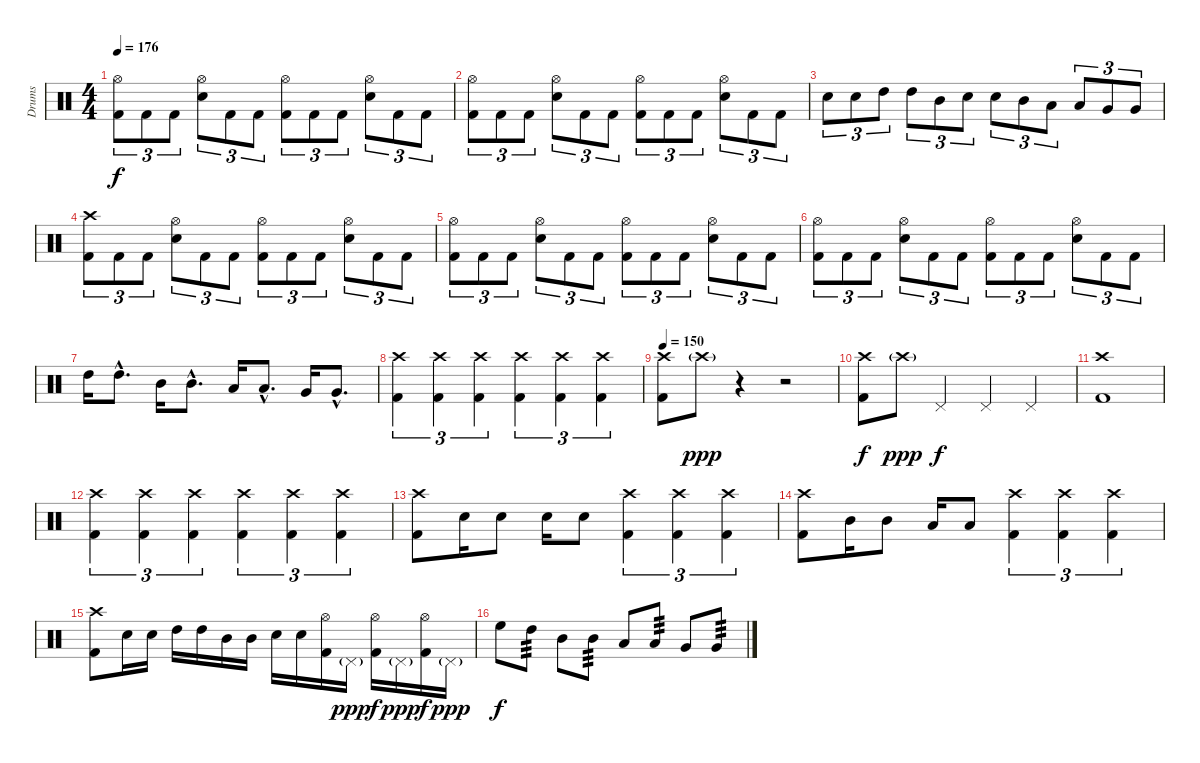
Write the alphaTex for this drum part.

\track ("Drums" "Drums") {instrument percussion}
\staff {score}
\articulation defaults
\ts (4 4)
\tempo 176
\clef neutral
\ks c
("Hi-Hat (open)" "Kick (hit) 2").8{tu (3 2) dy f} "Kick (hit) 2".8{tu (3 2)} "Kick (hit) 2".8{tu (3 2)} ("Hi-Hat (open)" "Electric Snare (hit)").8{tu (3 2)} "Kick (hit) 2".8{tu (3 2)} "Kick (hit) 2".8{tu (3 2)} ("Hi-Hat (open)" "Kick (hit) 2").8{tu (3 2)} "Kick (hit) 2".8{tu (3 2)} "Kick (hit) 2".8{tu (3 2)} ("Hi-Hat (open)" "Electric Snare (hit)").8{tu (3 2)} "Kick (hit) 2".8{tu (3 2)} "Kick (hit) 2".8{tu (3 2)} |
("Hi-Hat (open)" "Kick (hit) 2").8{tu (3 2)} "Kick (hit) 2".8{tu (3 2)} "Kick (hit) 2".8{tu (3 2)} ("Hi-Hat (open)" "Electric Snare (hit)").8{tu (3 2)} "Kick (hit) 2".8{tu (3 2)} "Kick (hit) 2".8{tu (3 2)} ("Hi-Hat (open)" "Kick (hit) 2").8{tu (3 2)} "Kick (hit) 2".8{tu (3 2)} "Kick (hit) 2".8{tu (3 2)} ("Hi-Hat (open)" "Electric Snare (hit)").8{tu (3 2)} "Kick (hit) 2".8{tu (3 2)} "Kick (hit) 2".8{tu (3 2)} |
"Electric Snare (hit)".8{tu (3 2)} "Electric Snare (hit)".8{tu (3 2)} "High Tom (hit)".8{tu (3 2)} "High Tom (hit)".8{tu (3 2)} "Mid Tom (hit)".8{tu (3 2)} "Electric Snare (hit)".8{tu (3 2)} "Electric Snare (hit)".8{tu (3 2)} "Mid Tom (hit)".8{tu (3 2)} "Low Tom (hit)".8{tu (3 2)} "Low Tom (hit)".8{tu (3 2)} "Very Low Tom (hit)".8{tu (3 2)} "Very Low Tom (hit)".8{tu (3 2)} |
("Crash high (hit)" "Kick (hit) 2").8{tu (3 2)} "Kick (hit) 2".8{tu (3 2)} "Kick (hit) 2".8{tu (3 2)} ("Hi-Hat (open)" "Electric Snare (hit)").8{tu (3 2)} "Kick (hit) 2".8{tu (3 2)} "Kick (hit) 2".8{tu (3 2)} ("Hi-Hat (open)" "Kick (hit) 2").8{tu (3 2)} "Kick (hit) 2".8{tu (3 2)} "Kick (hit) 2".8{tu (3 2)} ("Hi-Hat (open)" "Electric Snare (hit)").8{tu (3 2)} "Kick (hit) 2".8{tu (3 2)} "Kick (hit) 2".8{tu (3 2)} |
("Hi-Hat (open)" "Kick (hit) 2").8{tu (3 2)} "Kick (hit) 2".8{tu (3 2)} "Kick (hit) 2".8{tu (3 2)} ("Hi-Hat (open)" "Electric Snare (hit)").8{tu (3 2)} "Kick (hit) 2".8{tu (3 2)} "Kick (hit) 2".8{tu (3 2)} ("Hi-Hat (open)" "Kick (hit) 2").8{tu (3 2)} "Kick (hit) 2".8{tu (3 2)} "Kick (hit) 2".8{tu (3 2)} ("Hi-Hat (open)" "Electric Snare (hit)").8{tu (3 2)} "Kick (hit) 2".8{tu (3 2)} "Kick (hit) 2".8{tu (3 2)} |
("Hi-Hat (open)" "Kick (hit) 2").8{tu (3 2)} "Kick (hit) 2".8{tu (3 2)} "Kick (hit) 2".8{tu (3 2)} ("Hi-Hat (open)" "Electric Snare (hit)").8{tu (3 2)} "Kick (hit) 2".8{tu (3 2)} "Kick (hit) 2".8{tu (3 2)} ("Hi-Hat (open)" "Kick (hit) 2").8{tu (3 2)} "Kick (hit) 2".8{tu (3 2)} "Kick (hit) 2".8{tu (3 2)} ("Hi-Hat (open)" "Electric Snare (hit)").8{tu (3 2)} "Kick (hit) 2".8{tu (3 2)} "Kick (hit) 2".8{tu (3 2)} |
"High Tom (hit)".16 "High Tom (hit)"{hac}.8{d} "Mid Tom (hit)".16 "Mid Tom (hit)"{hac}.8{d} "Low Tom (hit)".16 "Low Tom (hit)"{hac}.8{d} "Very Low Tom (hit)".16 "Very Low Tom (hit)"{hac}.8{d} |
("Crash high (hit)" "Kick (hit) 2").4{tu (3 2)} ("Crash high (hit)" "Kick (hit) 2").4{tu (3 2)} ("Crash high (hit)" "Kick (hit) 2").4{tu (3 2)} ("Crash high (hit)" "Kick (hit) 2").4{tu (3 2)} ("Crash high (hit)" "Kick (hit) 2").4{tu (3 2)} ("Crash high (hit)" "Kick (hit) 2").4{tu (3 2)} |
\tempo 150
("Crash high (hit)" "Kick (hit) 2").8 "Crash high (hit)"{g}.8{dy ppp} r.4 r.2 |
("Crash high (hit)" "Kick (hit) 2").8{dy f} "Crash high (hit)"{g}.8{dy ppp} "Pedal Hi-Hat (hit)".4{dy f} "Pedal Hi-Hat (hit)".4 "Pedal Hi-Hat (hit)".4 |
("Crash high (hit)" "Kick (hit) 2").1 |
("Crash high (hit)" "Kick (hit) 2").4{tu (3 2)} ("Crash high (hit)" "Kick (hit) 2").4{tu (3 2)} ("Crash high (hit)" "Kick (hit) 2").4{tu (3 2)} ("Crash high (hit)" "Kick (hit) 2").4{tu (3 2)} ("Crash high (hit)" "Kick (hit) 2").4{tu (3 2)} ("Crash high (hit)" "Kick (hit) 2").4{tu (3 2)} |
("Crash high (hit)" "Kick (hit) 2").8 "Electric Snare (hit)".16 "Electric Snare (hit)".8 "Electric Snare (hit)".16 "Electric Snare (hit)".8 ("Crash high (hit)" "Kick (hit) 2").4{tu (3 2)} ("Crash high (hit)" "Kick (hit) 2").4{tu (3 2)} ("Crash high (hit)" "Kick (hit) 2").4{tu (3 2)} |
("Crash high (hit)" "Kick (hit) 2").8 "Mid Tom (hit)".16 "Mid Tom (hit)".8 "Low Tom (hit)".16 "Low Tom (hit)".8 ("Crash high (hit)" "Kick (hit) 2").4{tu (3 2)} ("Crash high (hit)" "Kick (hit) 2").4{tu (3 2)} ("Crash high (hit)" "Kick (hit) 2").4{tu (3 2)} |
("Crash high (hit)" "Kick (hit) 2").8 "Electric Snare (hit)".16 "Electric Snare (hit)".16 "High Tom (hit)".16 "High Tom (hit)".16 "Mid Tom (hit)".16 "Mid Tom (hit)".16 "Electric Snare (hit)".16 "Electric Snare (hit)".16 ("Hi-Hat (open)" "Kick (hit) 2").16 "Pedal Hi-Hat (hit)"{g}.16{dy ppp} ("Hi-Hat (open)" "Kick (hit) 2").16{dy f} "Pedal Hi-Hat (hit)"{g}.16{dy ppp} ("Hi-Hat (open)" "Kick (hit) 2").16{dy f} "Pedal Hi-Hat (hit)"{g}.16{dy ppp} |
"High Floor Tom (hit)".8{dy f} "High Tom (hit)".8{tp 3} "Mid Tom (hit)".8 "Mid Tom (hit)".8{tp 3} "Low Tom (hit)".8 "Low Tom (hit)".8{tp 3} "Very Low Tom (hit)".8 "Very Low Tom (hit)".8{tp 3}
